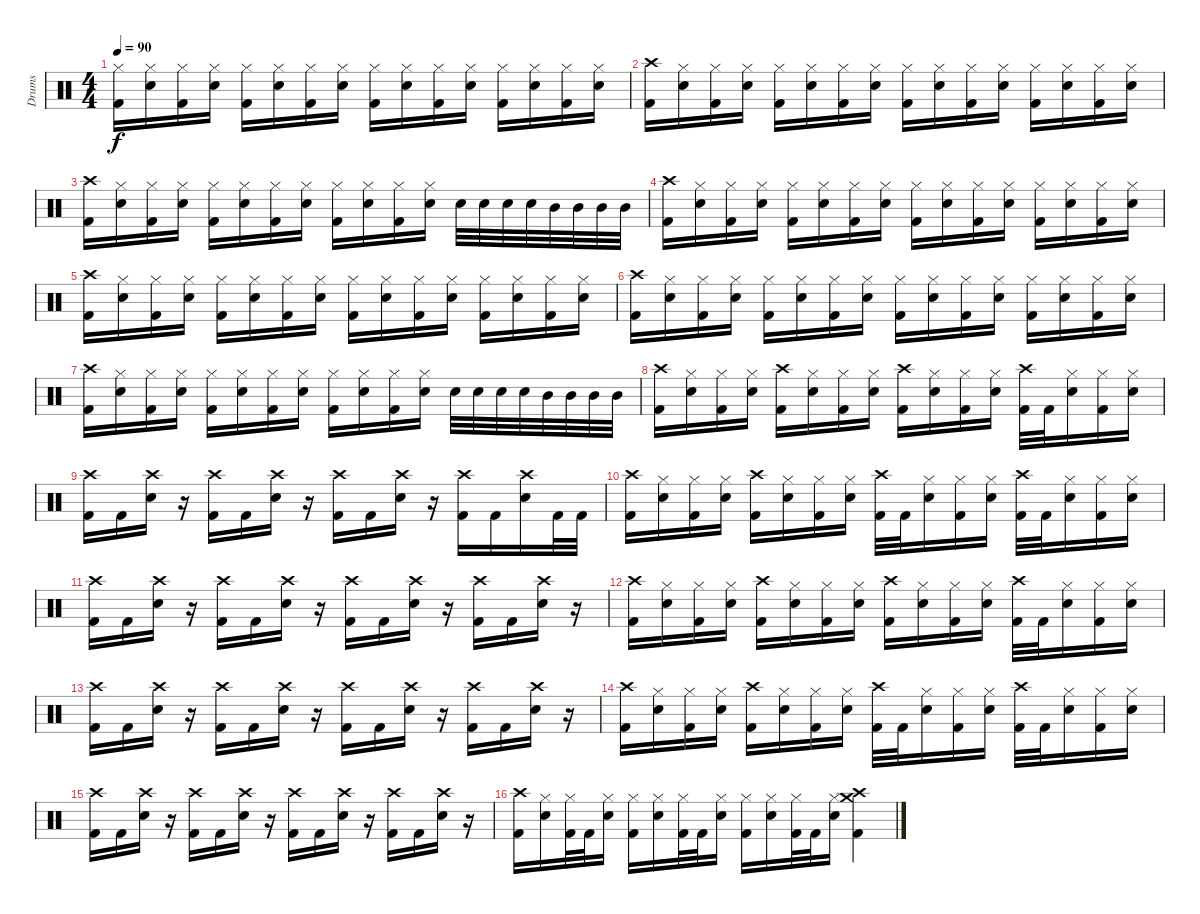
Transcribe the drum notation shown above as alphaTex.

\track ("Drums" "Drums") {instrument percussion}
\staff {score}
\articulation defaults
\ts (4 4)
\tempo 90
\clef neutral
\ks c
("Hi-Hat (closed)" "Kick (hit) 2").16{dy f} ("Hi-Hat (closed)" "Electric Snare (hit)").16 ("Hi-Hat (closed)" "Kick (hit) 2").16 ("Hi-Hat (closed)" "Electric Snare (hit)").16 ("Hi-Hat (closed)" "Kick (hit) 2").16 ("Hi-Hat (closed)" "Electric Snare (hit)").16 ("Hi-Hat (closed)" "Kick (hit) 2").16 ("Hi-Hat (closed)" "Electric Snare (hit)").16 ("Hi-Hat (closed)" "Kick (hit) 2").16 ("Hi-Hat (closed)" "Electric Snare (hit)").16 ("Hi-Hat (closed)" "Kick (hit) 2").16 ("Hi-Hat (closed)" "Electric Snare (hit)").16 ("Hi-Hat (closed)" "Kick (hit) 2").16 ("Hi-Hat (closed)" "Electric Snare (hit)").16 ("Hi-Hat (closed)" "Kick (hit) 2").16 ("Hi-Hat (closed)" "Electric Snare (hit)").16 |
("Crash high (hit)" "Kick (hit) 2").16 ("Hi-Hat (closed)" "Electric Snare (hit)").16 ("Hi-Hat (closed)" "Kick (hit) 2").16 ("Hi-Hat (closed)" "Electric Snare (hit)").16 ("Hi-Hat (closed)" "Kick (hit) 2").16 ("Hi-Hat (closed)" "Electric Snare (hit)").16 ("Hi-Hat (closed)" "Kick (hit) 2").16 ("Hi-Hat (closed)" "Electric Snare (hit)").16 ("Hi-Hat (closed)" "Kick (hit) 2").16 ("Hi-Hat (closed)" "Electric Snare (hit)").16 ("Hi-Hat (closed)" "Kick (hit) 2").16 ("Hi-Hat (closed)" "Electric Snare (hit)").16 ("Hi-Hat (closed)" "Kick (hit) 2").16 ("Hi-Hat (closed)" "Electric Snare (hit)").16 ("Hi-Hat (closed)" "Kick (hit) 2").16 ("Hi-Hat (closed)" "Electric Snare (hit)").16 |
("Crash high (hit)" "Kick (hit) 2").16 ("Hi-Hat (closed)" "Electric Snare (hit)").16 ("Hi-Hat (closed)" "Kick (hit) 2").16 ("Hi-Hat (closed)" "Electric Snare (hit)").16 ("Hi-Hat (closed)" "Kick (hit) 2").16 ("Hi-Hat (closed)" "Electric Snare (hit)").16 ("Hi-Hat (closed)" "Kick (hit) 2").16 ("Hi-Hat (closed)" "Electric Snare (hit)").16 ("Hi-Hat (closed)" "Kick (hit) 2").16 ("Hi-Hat (closed)" "Electric Snare (hit)").16 ("Hi-Hat (closed)" "Kick (hit) 2").16 ("Hi-Hat (closed)" "Electric Snare (hit)").16 "Electric Snare (hit)".32 "Electric Snare (hit)".32 "Electric Snare (hit)".32 "Electric Snare (hit)".32 "Mid Tom (hit)".32 "Mid Tom (hit)".32 "Mid Tom (hit)".32 "Mid Tom (hit)".32 |
("Crash high (hit)" "Kick (hit) 2").16 ("Hi-Hat (closed)" "Electric Snare (hit)").16 ("Hi-Hat (closed)" "Kick (hit) 2").16 ("Hi-Hat (closed)" "Electric Snare (hit)").16 ("Hi-Hat (closed)" "Kick (hit) 2").16 ("Hi-Hat (closed)" "Electric Snare (hit)").16 ("Hi-Hat (closed)" "Kick (hit) 2").16 ("Hi-Hat (closed)" "Electric Snare (hit)").16 ("Hi-Hat (closed)" "Kick (hit) 2").16 ("Hi-Hat (closed)" "Electric Snare (hit)").16 ("Hi-Hat (closed)" "Kick (hit) 2").16 ("Hi-Hat (closed)" "Electric Snare (hit)").16 ("Hi-Hat (closed)" "Kick (hit) 2").16 ("Hi-Hat (closed)" "Electric Snare (hit)").16 ("Hi-Hat (closed)" "Kick (hit) 2").16 ("Hi-Hat (closed)" "Electric Snare (hit)").16 |
("Crash high (hit)" "Kick (hit) 2").16 ("Hi-Hat (closed)" "Electric Snare (hit)").16 ("Hi-Hat (closed)" "Kick (hit) 2").16 ("Hi-Hat (closed)" "Electric Snare (hit)").16 ("Hi-Hat (closed)" "Kick (hit) 2").16 ("Hi-Hat (closed)" "Electric Snare (hit)").16 ("Hi-Hat (closed)" "Kick (hit) 2").16 ("Hi-Hat (closed)" "Electric Snare (hit)").16 ("Hi-Hat (closed)" "Kick (hit) 2").16 ("Hi-Hat (closed)" "Electric Snare (hit)").16 ("Hi-Hat (closed)" "Kick (hit) 2").16 ("Hi-Hat (closed)" "Electric Snare (hit)").16 ("Hi-Hat (closed)" "Kick (hit) 2").16 ("Hi-Hat (closed)" "Electric Snare (hit)").16 ("Hi-Hat (closed)" "Kick (hit) 2").16 ("Hi-Hat (closed)" "Electric Snare (hit)").16 |
("Crash high (hit)" "Kick (hit) 2").16 ("Hi-Hat (closed)" "Electric Snare (hit)").16 ("Hi-Hat (closed)" "Kick (hit) 2").16 ("Hi-Hat (closed)" "Electric Snare (hit)").16 ("Hi-Hat (closed)" "Kick (hit) 2").16 ("Hi-Hat (closed)" "Electric Snare (hit)").16 ("Hi-Hat (closed)" "Kick (hit) 2").16 ("Hi-Hat (closed)" "Electric Snare (hit)").16 ("Hi-Hat (closed)" "Kick (hit) 2").16 ("Hi-Hat (closed)" "Electric Snare (hit)").16 ("Hi-Hat (closed)" "Kick (hit) 2").16 ("Hi-Hat (closed)" "Electric Snare (hit)").16 ("Hi-Hat (closed)" "Kick (hit) 2").16 ("Hi-Hat (closed)" "Electric Snare (hit)").16 ("Hi-Hat (closed)" "Kick (hit) 2").16 ("Hi-Hat (closed)" "Electric Snare (hit)").16 |
("Crash high (hit)" "Kick (hit) 2").16 ("Hi-Hat (closed)" "Electric Snare (hit)").16 ("Hi-Hat (closed)" "Kick (hit) 2").16 ("Hi-Hat (closed)" "Electric Snare (hit)").16 ("Hi-Hat (closed)" "Kick (hit) 2").16 ("Hi-Hat (closed)" "Electric Snare (hit)").16 ("Hi-Hat (closed)" "Kick (hit) 2").16 ("Hi-Hat (closed)" "Electric Snare (hit)").16 ("Hi-Hat (closed)" "Kick (hit) 2").16 ("Hi-Hat (closed)" "Electric Snare (hit)").16 ("Hi-Hat (closed)" "Kick (hit) 2").16 ("Hi-Hat (closed)" "Electric Snare (hit)").16 "Electric Snare (hit)".32 "Electric Snare (hit)".32 "Electric Snare (hit)".32 "Electric Snare (hit)".32 "Mid Tom (hit)".32 "Mid Tom (hit)".32 "Mid Tom (hit)".32 "Mid Tom (hit)".32 |
("Crash high (hit)" "Kick (hit) 2").16 ("Hi-Hat (closed)" "Electric Snare (hit)").16 ("Hi-Hat (closed)" "Kick (hit) 2").16 ("Hi-Hat (closed)" "Electric Snare (hit)").16 ("Crash high (hit)" "Kick (hit) 2").16 ("Hi-Hat (closed)" "Electric Snare (hit)").16 ("Hi-Hat (closed)" "Kick (hit) 2").16 ("Hi-Hat (closed)" "Electric Snare (hit)").16 ("Crash high (hit)" "Kick (hit) 2").16 ("Hi-Hat (closed)" "Electric Snare (hit)").16 ("Hi-Hat (closed)" "Kick (hit) 2").16 ("Hi-Hat (closed)" "Electric Snare (hit)").16 ("Crash high (hit)" "Kick (hit) 2").32 "Kick (hit) 2".32 ("Hi-Hat (closed)" "Electric Snare (hit)").16 ("Hi-Hat (closed)" "Kick (hit) 2").16 ("Hi-Hat (closed)" "Electric Snare (hit)").16 |
("Crash high (hit)" "Kick (hit) 2").16 "Kick (hit) 2".16 ("Crash high (hit)" "Electric Snare (hit)").16 r.16 ("Crash high (hit)" "Kick (hit) 2").16 "Kick (hit) 2".16 ("Crash high (hit)" "Electric Snare (hit)").16 r.16 ("Crash high (hit)" "Kick (hit) 2").16 "Kick (hit) 2".16 ("Crash high (hit)" "Electric Snare (hit)").16 r.16 ("Crash high (hit)" "Kick (hit) 2").16 "Kick (hit) 2".16 ("Crash high (hit)" "Electric Snare (hit)").16 "Kick (hit) 2".32 "Kick (hit) 2".32 |
("Crash high (hit)" "Kick (hit) 2").16 ("Hi-Hat (closed)" "Electric Snare (hit)").16 ("Hi-Hat (closed)" "Kick (hit) 2").16 ("Hi-Hat (closed)" "Electric Snare (hit)").16 ("Crash high (hit)" "Kick (hit) 2").16 ("Hi-Hat (closed)" "Electric Snare (hit)").16 ("Hi-Hat (closed)" "Kick (hit) 2").16 ("Hi-Hat (closed)" "Electric Snare (hit)").16 ("Crash high (hit)" "Kick (hit) 2").32 "Kick (hit) 2".32 ("Hi-Hat (closed)" "Electric Snare (hit)").16 ("Hi-Hat (closed)" "Kick (hit) 2").16 ("Hi-Hat (closed)" "Electric Snare (hit)").16 ("Crash high (hit)" "Kick (hit) 2").32 "Kick (hit) 2".32 ("Hi-Hat (closed)" "Electric Snare (hit)").16 ("Hi-Hat (closed)" "Kick (hit) 2").16 ("Hi-Hat (closed)" "Electric Snare (hit)").16 |
("Crash high (hit)" "Kick (hit) 2").16 "Kick (hit) 2".16 ("Crash high (hit)" "Electric Snare (hit)").16 r.16 ("Crash high (hit)" "Kick (hit) 2").16 "Kick (hit) 2".16 ("Crash high (hit)" "Electric Snare (hit)").16 r.16 ("Crash high (hit)" "Kick (hit) 2").16 "Kick (hit) 2".16 ("Crash high (hit)" "Electric Snare (hit)").16 r.16 ("Crash high (hit)" "Kick (hit) 2").16 "Kick (hit) 2".16 ("Crash high (hit)" "Electric Snare (hit)").16 r.16 |
("Crash high (hit)" "Kick (hit) 2").16 ("Hi-Hat (closed)" "Electric Snare (hit)").16 ("Hi-Hat (closed)" "Kick (hit) 2").16 ("Hi-Hat (closed)" "Electric Snare (hit)").16 ("Crash high (hit)" "Kick (hit) 2").16 ("Hi-Hat (closed)" "Electric Snare (hit)").16 ("Hi-Hat (closed)" "Kick (hit) 2").16 ("Hi-Hat (closed)" "Electric Snare (hit)").16 ("Crash high (hit)" "Kick (hit) 2").16 ("Hi-Hat (closed)" "Electric Snare (hit)").16 ("Hi-Hat (closed)" "Kick (hit) 2").16 ("Hi-Hat (closed)" "Electric Snare (hit)").16 ("Crash high (hit)" "Kick (hit) 2").32 "Kick (hit) 2".32 ("Hi-Hat (closed)" "Electric Snare (hit)").16 ("Hi-Hat (closed)" "Kick (hit) 2").16 ("Hi-Hat (closed)" "Electric Snare (hit)").16 |
("Crash high (hit)" "Kick (hit) 2").16 "Kick (hit) 2".16 ("Crash high (hit)" "Electric Snare (hit)").16 r.16 ("Crash high (hit)" "Kick (hit) 2").16 "Kick (hit) 2".16 ("Crash high (hit)" "Electric Snare (hit)").16 r.16 ("Crash high (hit)" "Kick (hit) 2").16 "Kick (hit) 2".16 ("Crash high (hit)" "Electric Snare (hit)").16 r.16 ("Crash high (hit)" "Kick (hit) 2").16 "Kick (hit) 2".16 ("Crash high (hit)" "Electric Snare (hit)").16 r.16 |
("Crash high (hit)" "Kick (hit) 2").16 ("Hi-Hat (closed)" "Electric Snare (hit)").16 ("Hi-Hat (closed)" "Kick (hit) 2").16 ("Hi-Hat (closed)" "Electric Snare (hit)").16 ("Crash high (hit)" "Kick (hit) 2").16 ("Hi-Hat (closed)" "Electric Snare (hit)").16 ("Hi-Hat (closed)" "Kick (hit) 2").16 ("Hi-Hat (closed)" "Electric Snare (hit)").16 ("Crash high (hit)" "Kick (hit) 2").32 "Kick (hit) 2".32 ("Hi-Hat (closed)" "Electric Snare (hit)").16 ("Hi-Hat (closed)" "Kick (hit) 2").16 ("Hi-Hat (closed)" "Electric Snare (hit)").16 ("Crash high (hit)" "Kick (hit) 2").32 "Kick (hit) 2".32 ("Hi-Hat (closed)" "Electric Snare (hit)").16 ("Hi-Hat (closed)" "Kick (hit) 2").16 ("Hi-Hat (closed)" "Electric Snare (hit)").16 |
("Crash high (hit)" "Kick (hit) 2").16 "Kick (hit) 2".16 ("Crash high (hit)" "Electric Snare (hit)").16 r.16 ("Crash high (hit)" "Kick (hit) 2").16 "Kick (hit) 2".16 ("Crash high (hit)" "Electric Snare (hit)").16 r.16 ("Crash high (hit)" "Kick (hit) 2").16 "Kick (hit) 2".16 ("Crash high (hit)" "Electric Snare (hit)").16 r.16 ("Crash high (hit)" "Kick (hit) 2").16 "Kick (hit) 2".16 ("Crash high (hit)" "Electric Snare (hit)").16 r.16 |
("Crash high (hit)" "Kick (hit) 2").16 ("Hi-Hat (closed)" "Electric Snare (hit)").16 ("Hi-Hat (closed)" "Kick (hit) 2").32 "Kick (hit) 2".32 ("Hi-Hat (closed)" "Electric Snare (hit)").16 ("Hi-Hat (closed)" "Kick (hit) 2").16 ("Hi-Hat (closed)" "Electric Snare (hit)").16 ("Hi-Hat (closed)" "Kick (hit) 2").32 "Kick (hit) 2".32 ("Hi-Hat (closed)" "Electric Snare (hit)").16 ("Hi-Hat (closed)" "Kick (hit) 2").16 ("Hi-Hat (closed)" "Electric Snare (hit)").16 ("Hi-Hat (closed)" "Kick (hit) 2").32 "Kick (hit) 2".32 ("Hi-Hat (closed)" "Electric Snare (hit)").16 ("Crash high (hit)" "Crash medium (hit)" "Kick (hit) 2").4
